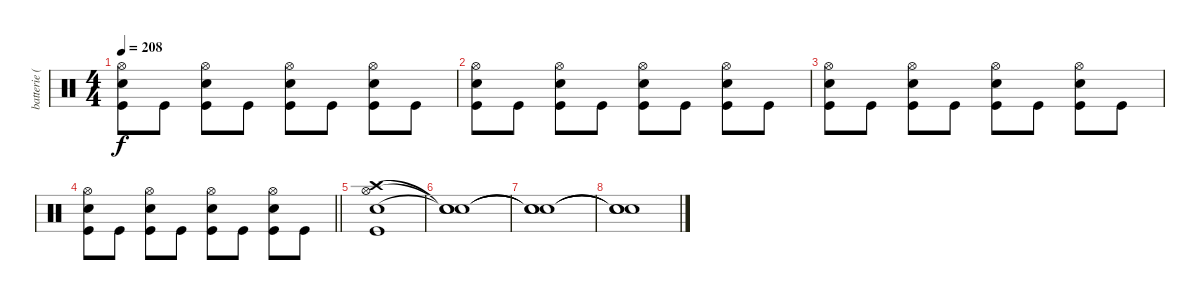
\track ("batterie ( Guillaume ) " "batterie (") {instrument percussion}
\staff {score}
\articulation defaults
\ts (4 4)
\tempo 208
\clef neutral
\ks c
("Hi-Hat (open)" "Electric Snare (hit)" "Kick (hit)").8{dy f} "Kick (hit)".8 ("Hi-Hat (open)" "Electric Snare (hit)" "Kick (hit)").8 "Kick (hit)".8 ("Hi-Hat (open)" "Electric Snare (hit)" "Kick (hit)").8 "Kick (hit)".8 ("Hi-Hat (open)" "Electric Snare (hit)" "Kick (hit)").8 "Kick (hit)".8 |
("Hi-Hat (open)" "Electric Snare (hit)" "Kick (hit)").8 "Kick (hit)".8 ("Hi-Hat (open)" "Electric Snare (hit)" "Kick (hit)").8 "Kick (hit)".8 ("Hi-Hat (open)" "Electric Snare (hit)" "Kick (hit)").8 "Kick (hit)".8 ("Hi-Hat (open)" "Electric Snare (hit)" "Kick (hit)").8 "Kick (hit)".8 |
("Hi-Hat (open)" "Electric Snare (hit)" "Kick (hit)").8 "Kick (hit)".8 ("Hi-Hat (open)" "Electric Snare (hit)" "Kick (hit)").8 "Kick (hit)".8 ("Hi-Hat (open)" "Electric Snare (hit)" "Kick (hit)").8 "Kick (hit)".8 ("Hi-Hat (open)" "Electric Snare (hit)" "Kick (hit)").8 "Kick (hit)".8 |
\barLineRight lightlight
("Hi-Hat (open)" "Electric Snare (hit)" "Kick (hit)").8 "Kick (hit)".8 ("Hi-Hat (open)" "Electric Snare (hit)" "Kick (hit)").8 "Kick (hit)".8 ("Hi-Hat (open)" "Electric Snare (hit)" "Kick (hit)").8 "Kick (hit)".8 ("Hi-Hat (open)" "Electric Snare (hit)" "Kick (hit)").8 "Kick (hit)".8 |
("Hi-Hat (open)" "Crash high (hit)" "Electric Snare (hit)" "Kick (hit)").1 |
("Snare (hit)"{t} "Snare (hit)"{t} "Snare (hit)"{t}).1 |
("Snare (hit)"{t} "Snare (hit)"{t} "Snare (hit)"{t}).1 |
("Snare (hit)"{t} "Snare (hit)"{t} "Snare (hit)"{t}).1
